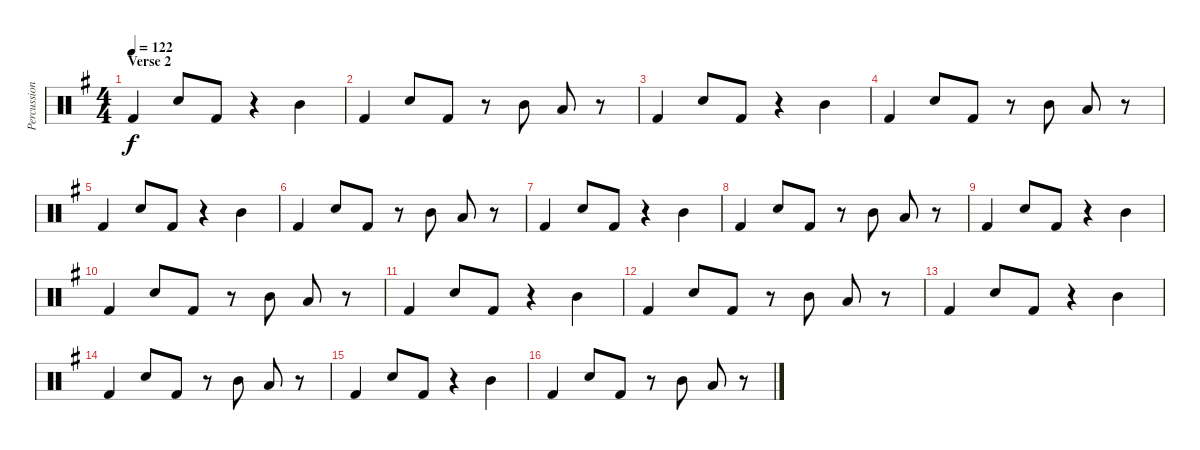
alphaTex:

\track ("Percussion" "Percussion") {instrument percussion}
\staff {score}
\articulation defaults
\ts (4 4)
\section ("" "Verse 2")
\tempo 122
\clef neutral
\ks g "Kick (hit) 2".4{dy f} "Snare (hit) 2".8 "Kick (hit) 2".8
r.4 "Mid Tom (hit)".4 |
"Kick (hit) 2".4 "Snare (hit) 2".8 "Kick (hit) 2".8 r.8 "Mid Tom (hit)".8 "Low Tom (hit)".8 r.8 |
"Kick (hit) 2".4 "Snare (hit) 2".8 "Kick (hit) 2".8 r.4 "Mid Tom (hit)".4 |
"Kick (hit) 2".4 "Snare (hit) 2".8 "Kick (hit) 2".8 r.8 "Mid Tom (hit)".8 "Low Tom (hit)".8 r.8 |
"Kick (hit) 2".4 "Snare (hit) 2".8 "Kick (hit) 2".8 r.4 "Mid Tom (hit)".4 |
"Kick (hit) 2".4 "Snare (hit) 2".8 "Kick (hit) 2".8 r.8 "Mid Tom (hit)".8 "Low Tom (hit)".8 r.8 |
"Kick (hit) 2".4 "Snare (hit) 2".8 "Kick (hit) 2".8 r.4 "Mid Tom (hit)".4 |
"Kick (hit) 2".4 "Snare (hit) 2".8 "Kick (hit) 2".8 r.8 "Mid Tom (hit)".8 "Low Tom (hit)".8 r.8 |
"Kick (hit) 2".4 "Snare (hit) 2".8 "Kick (hit) 2".8 r.4 "Mid Tom (hit)".4 |
"Kick (hit) 2".4 "Snare (hit) 2".8 "Kick (hit) 2".8 r.8 "Mid Tom (hit)".8 "Low Tom (hit)".8 r.8 |
"Kick (hit) 2".4 "Snare (hit) 2".8 "Kick (hit) 2".8 r.4 "Mid Tom (hit)".4 |
"Kick (hit) 2".4 "Snare (hit) 2".8 "Kick (hit) 2".8 r.8 "Mid Tom (hit)".8 "Low Tom (hit)".8 r.8 |
"Kick (hit) 2".4 "Snare (hit) 2".8 "Kick (hit) 2".8 r.4 "Mid Tom (hit)".4 |
"Kick (hit) 2".4 "Snare (hit) 2".8 "Kick (hit) 2".8 r.8 "Mid Tom (hit)".8 "Low Tom (hit)".8 r.8 |
"Kick (hit) 2".4 "Snare (hit) 2".8 "Kick (hit) 2".8 r.4 "Mid Tom (hit)".4 |
"Kick (hit) 2".4 "Snare (hit) 2".8 "Kick (hit) 2".8 r.8 "Mid Tom (hit)".8 "Low Tom (hit)".8 r.8
